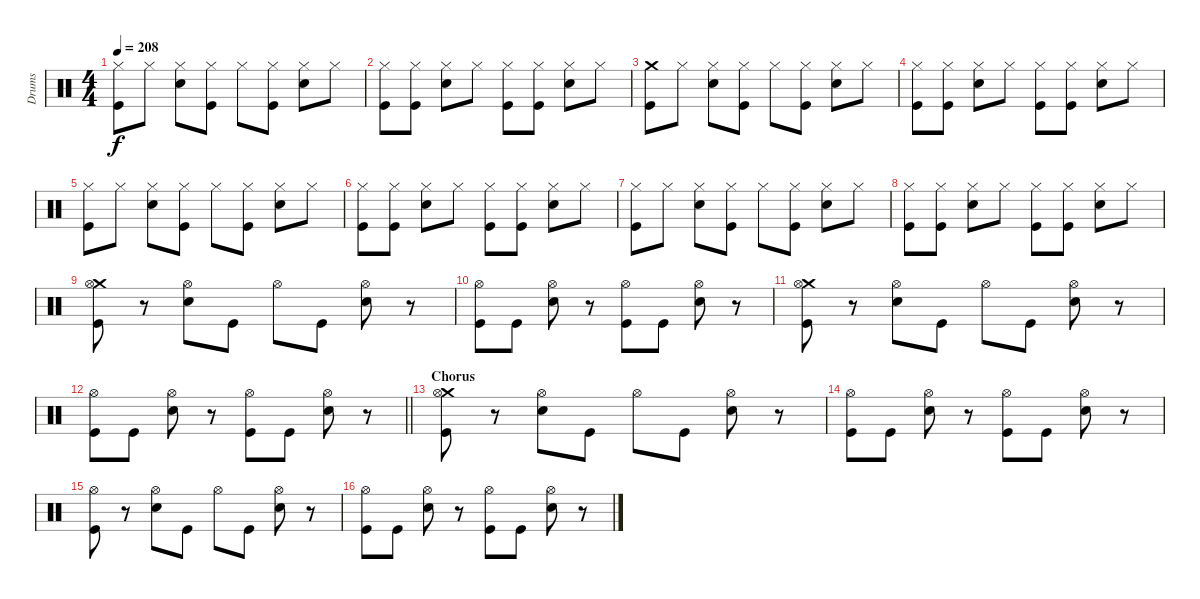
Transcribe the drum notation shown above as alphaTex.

\track ("Drums" "Drums") {instrument percussion}
\staff {score}
\articulation defaults
\ts (4 4)
\tempo 208
\clef neutral
\ks c
("Hi-Hat (closed)" "Kick (hit)").8{dy f} "Hi-Hat (closed)".8 ("Hi-Hat (closed)" "Electric Snare (hit)").8 ("Hi-Hat (closed)" "Kick (hit)").8 "Hi-Hat (closed)".8 ("Hi-Hat (closed)" "Kick (hit)").8 ("Hi-Hat (closed)" "Electric Snare (hit)").8 "Hi-Hat (closed)".8 |
("Hi-Hat (closed)" "Kick (hit)").8 ("Hi-Hat (closed)" "Kick (hit)").8 ("Hi-Hat (closed)" "Electric Snare (hit)").8 "Hi-Hat (closed)".8 ("Hi-Hat (closed)" "Kick (hit)").8 ("Hi-Hat (closed)" "Kick (hit)").8 ("Hi-Hat (closed)" "Electric Snare (hit)").8 "Hi-Hat (closed)".8 |
("Crash medium (hit)" "Kick (hit)").8 "Hi-Hat (closed)".8 ("Hi-Hat (closed)" "Electric Snare (hit)").8 ("Hi-Hat (closed)" "Kick (hit)").8 "Hi-Hat (closed)".8 ("Hi-Hat (closed)" "Kick (hit)").8 ("Hi-Hat (closed)" "Electric Snare (hit)").8 "Hi-Hat (closed)".8 |
("Hi-Hat (closed)" "Kick (hit)").8 ("Hi-Hat (closed)" "Kick (hit)").8 ("Hi-Hat (closed)" "Electric Snare (hit)").8 "Hi-Hat (closed)".8 ("Hi-Hat (closed)" "Kick (hit)").8 ("Hi-Hat (closed)" "Kick (hit)").8 ("Hi-Hat (closed)" "Electric Snare (hit)").8 "Hi-Hat (closed)".8 |
("Hi-Hat (closed)" "Kick (hit)").8 "Hi-Hat (closed)".8 ("Hi-Hat (closed)" "Electric Snare (hit)").8 ("Hi-Hat (closed)" "Kick (hit)").8 "Hi-Hat (closed)".8 ("Hi-Hat (closed)" "Kick (hit)").8 ("Hi-Hat (closed)" "Electric Snare (hit)").8 "Hi-Hat (closed)".8 |
("Hi-Hat (closed)" "Kick (hit)").8 ("Hi-Hat (closed)" "Kick (hit)").8 ("Hi-Hat (closed)" "Electric Snare (hit)").8 "Hi-Hat (closed)".8 ("Hi-Hat (closed)" "Kick (hit)").8 ("Hi-Hat (closed)" "Kick (hit)").8 ("Hi-Hat (closed)" "Electric Snare (hit)").8 "Hi-Hat (closed)".8 |
("Hi-Hat (closed)" "Kick (hit)").8 "Hi-Hat (closed)".8 ("Hi-Hat (closed)" "Electric Snare (hit)").8 ("Hi-Hat (closed)" "Kick (hit)").8 "Hi-Hat (closed)".8 ("Hi-Hat (closed)" "Kick (hit)").8 ("Hi-Hat (closed)" "Electric Snare (hit)").8 "Hi-Hat (closed)".8 |
("Hi-Hat (closed)" "Kick (hit)").8 ("Hi-Hat (closed)" "Kick (hit)").8 ("Hi-Hat (closed)" "Electric Snare (hit)").8 "Hi-Hat (closed)".8 ("Hi-Hat (closed)" "Kick (hit)").8 ("Hi-Hat (closed)" "Kick (hit)").8 ("Hi-Hat (closed)" "Electric Snare (hit)").8 "Hi-Hat (closed)".8 |
("Crash medium (hit)" "Hi-Hat (open)" "Kick (hit)").8 r.8 ("Hi-Hat (open)" "Electric Snare (hit)").8 "Kick (hit)".8 "Hi-Hat (open)".8 "Kick (hit)".8 ("Hi-Hat (open)" "Electric Snare (hit)").8 r.8 |
("Hi-Hat (open)" "Kick (hit)").8 "Kick (hit)".8 ("Hi-Hat (open)" "Electric Snare (hit)").8 r.8 ("Hi-Hat (open)" "Kick (hit)").8 "Kick (hit)".8 ("Hi-Hat (open)" "Electric Snare (hit)").8 r.8 |
("Crash medium (hit)" "Hi-Hat (open)" "Kick (hit)").8 r.8 ("Hi-Hat (open)" "Electric Snare (hit)").8 "Kick (hit)".8 "Hi-Hat (open)".8 "Kick (hit)".8 ("Hi-Hat (open)" "Electric Snare (hit)").8 r.8 |
\barLineRight lightlight
("Hi-Hat (open)" "Kick (hit)").8 "Kick (hit)".8 ("Hi-Hat (open)" "Electric Snare (hit)").8 r.8 ("Hi-Hat (open)" "Kick (hit)").8 "Kick (hit)".8 ("Hi-Hat (open)" "Electric Snare (hit)").8 r.8 |
\section ("" "Chorus")
("Crash medium (hit)" "Hi-Hat (open)" "Kick (hit)").8 r.8 ("Hi-Hat (open)" "Electric Snare (hit)").8 "Kick (hit)".8 "Hi-Hat (open)".8 "Kick (hit)".8 ("Hi-Hat (open)" "Electric Snare (hit)").8 r.8 |
("Hi-Hat (open)" "Kick (hit)").8 "Kick (hit)".8 ("Hi-Hat (open)" "Electric Snare (hit)").8 r.8 ("Hi-Hat (open)" "Kick (hit)").8 "Kick (hit)".8 ("Hi-Hat (open)" "Electric Snare (hit)").8 r.8 |
("Hi-Hat (open)" "Kick (hit)").8 r.8 ("Hi-Hat (open)" "Electric Snare (hit)").8 "Kick (hit)".8 "Hi-Hat (open)".8 "Kick (hit)".8 ("Hi-Hat (open)" "Electric Snare (hit)").8 r.8 |
("Hi-Hat (open)" "Kick (hit)").8 "Kick (hit)".8 ("Hi-Hat (open)" "Electric Snare (hit)").8 r.8 ("Hi-Hat (open)" "Kick (hit)").8 "Kick (hit)".8 ("Hi-Hat (open)" "Electric Snare (hit)").8 r.8
